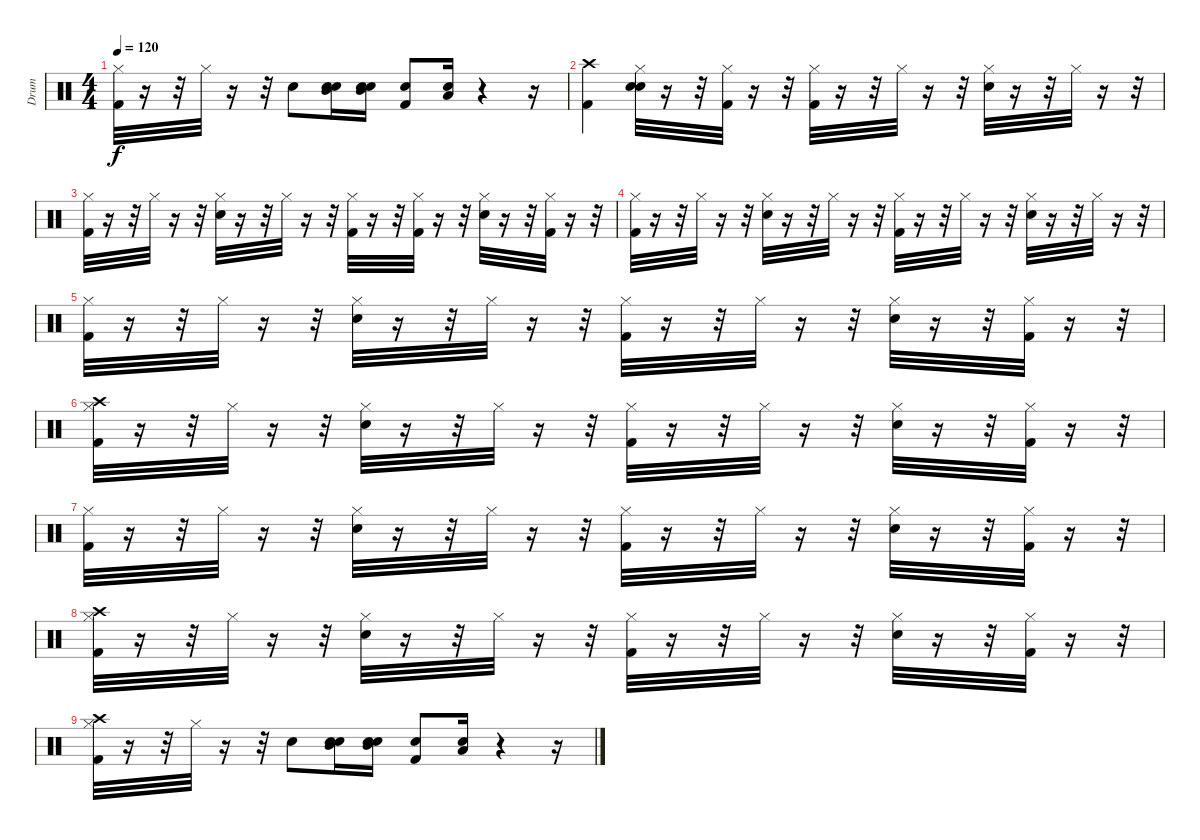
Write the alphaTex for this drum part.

\track ("Drum" "Drum") {instrument percussion}
\staff {score}
\articulation defaults
\ts (4 4)
\tempo 120
\clef neutral
\ks c
("Kick (hit) 2" "Hi-Hat (closed)").32{dy f} r.16 r.32 "Hi-Hat (closed)".32 r.16 r.32 "Snare (hit) 2".8 ("Snare (hit)" "Snare (hit) 2" "Mid Tom (hit)").16 ("Snare (hit)" "Snare (hit) 2" "Mid Tom (hit)").16 ("Snare (hit)" "Kick (hit) 2").8 ("Snare (hit)" "Low Tom (hit)").16 r.4 r.16 |
("Kick (hit) 2" "Crash high (hit)").4 ("Snare (hit)" "Snare (hit) 2" "Hi-Hat (closed)").32 r.16 r.32 ("Kick (hit) 2" "Hi-Hat (closed)").32 r.16 r.32 ("Kick (hit) 2" "Hi-Hat (closed)").32 r.16 r.32 "Hi-Hat (closed)".32 r.16 r.32 ("Snare (hit) 2" "Hi-Hat (closed)").32 r.16 r.32 "Hi-Hat (closed)".32 r.16 r.32 |
("Kick (hit) 2" "Hi-Hat (closed)").32 r.16 r.32 "Hi-Hat (closed)".32 r.16 r.32 ("Snare (hit) 2" "Hi-Hat (closed)").32 r.16 r.32 "Hi-Hat (closed)".32 r.16 r.32 ("Kick (hit) 2" "Hi-Hat (closed)").32 r.16 r.32 ("Kick (hit) 2" "Hi-Hat (closed)").32 r.16 r.32 ("Snare (hit) 2" "Hi-Hat (closed)").32 r.16 r.32 ("Kick (hit) 2" "Hi-Hat (closed)").32 r.16 r.32 |
("Kick (hit) 2" "Hi-Hat (closed)").32 r.16 r.32 "Hi-Hat (closed)".32 r.16 r.32 ("Snare (hit) 2" "Hi-Hat (closed)").32 r.16 r.32 "Hi-Hat (closed)".32 r.16 r.32 ("Kick (hit) 2" "Hi-Hat (closed)").32 r.16 r.32 "Hi-Hat (closed)".32 r.16 r.32 ("Snare (hit) 2" "Hi-Hat (closed)").32 r.16 r.32 "Hi-Hat (closed)".32 r.16 r.32 |
("Kick (hit) 2" "Hi-Hat (closed)").32{volume 10} r.16 r.32 "Hi-Hat (closed)".32 r.16 r.32 ("Snare (hit) 2" "Hi-Hat (closed)").32 r.16 r.32 "Hi-Hat (closed)".32 r.16 r.32 ("Kick (hit) 2" "Hi-Hat (closed)").32{volume 8} r.16 r.32 "Hi-Hat (closed)".32 r.16 r.32 ("Snare (hit) 2" "Hi-Hat (closed)").32 r.16 r.32 ("Kick (hit) 2" "Hi-Hat (closed)").32 r.16 r.32 |
("Kick (hit) 2" "Hi-Hat (closed)" "Crash high (hit)").32{volume 7} r.16 r.32 "Hi-Hat (closed)".32 r.16 r.32 ("Snare (hit) 2" "Hi-Hat (closed)").32 r.16 r.32 "Hi-Hat (closed)".32 r.16 r.32 ("Kick (hit) 2" "Hi-Hat (closed)").32{volume 6} r.16 r.32 "Hi-Hat (closed)".32 r.16 r.32 ("Snare (hit) 2" "Hi-Hat (closed)").32 r.16 r.32 ("Kick (hit) 2" "Hi-Hat (closed)").32 r.16 r.32 |
("Kick (hit) 2" "Hi-Hat (closed)").32{volume 5} r.16 r.32 "Hi-Hat (closed)".32 r.16 r.32 ("Snare (hit) 2" "Hi-Hat (closed)").32 r.16 r.32 "Hi-Hat (closed)".32 r.16 r.32 ("Kick (hit) 2" "Hi-Hat (closed)").32{volume 4} r.16 r.32 "Hi-Hat (closed)".32 r.16 r.32 ("Snare (hit) 2" "Hi-Hat (closed)").32 r.16 r.32 ("Kick (hit) 2" "Hi-Hat (closed)").32 r.16 r.32 |
("Kick (hit) 2" "Hi-Hat (closed)" "Crash high (hit)").32{volume 3} r.16 r.32 "Hi-Hat (closed)".32 r.16 r.32 ("Snare (hit) 2" "Hi-Hat (closed)").32 r.16 r.32 "Hi-Hat (closed)".32 r.16 r.32 ("Kick (hit) 2" "Hi-Hat (closed)").32{volume 2} r.16 r.32 "Hi-Hat (closed)".32 r.16 r.32 ("Snare (hit) 2" "Hi-Hat (closed)").32 r.16 r.32 ("Kick (hit) 2" "Hi-Hat (closed)").32 r.16 r.32 |
("Kick (hit) 2" "Hi-Hat (closed)" "Crash high (hit)").32{volume 2} r.16 r.32 "Hi-Hat (closed)".32 r.16 r.32 "Snare (hit) 2".8{volume 1} ("Snare (hit)" "Snare (hit) 2" "Mid Tom (hit)").16 ("Snare (hit)" "Snare (hit) 2" "Mid Tom (hit)").16 ("Snare (hit)" "Kick (hit) 2").8 ("Snare (hit)" "Low Tom (hit)").16 r.4 r.16
